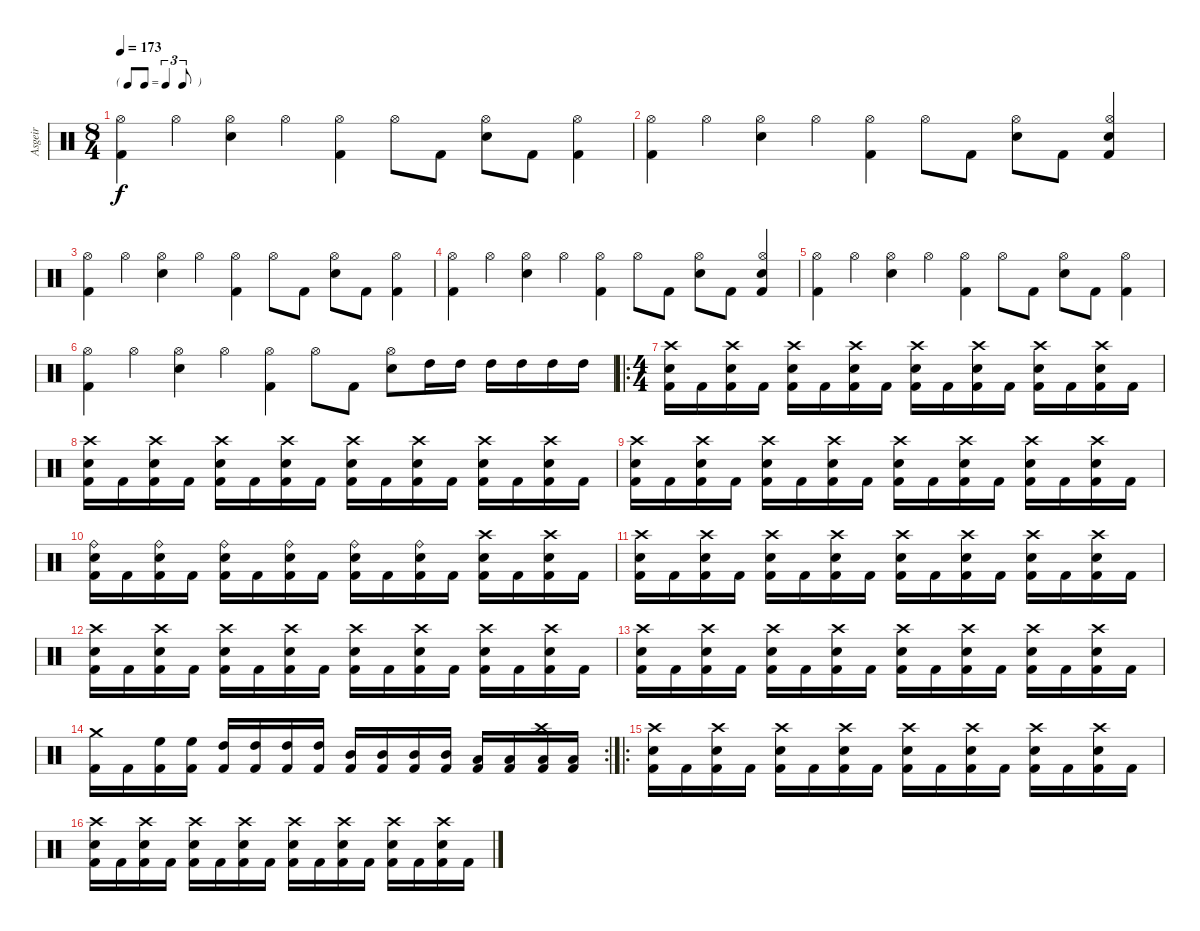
\track ("Asgeir" "Asgeir") {instrument percussion}
\staff {score}
\articulation defaults
\ts (8 4)
\tf triplet8th
\tempo 173
\clef neutral
\ks c
("Kick (hit) 2" "Hi-Hat (open)").4{dy f} "Hi-Hat (open)".4 ("Snare (hit) 2" "Hi-Hat (open)").4 "Hi-Hat (open)".4 ("Kick (hit) 2" "Hi-Hat (open)").4 "Hi-Hat (open)".8 "Kick (hit) 2".8 ("Snare (hit) 2" "Hi-Hat (open)").8 "Kick (hit) 2".8 ("Kick (hit) 2" "Hi-Hat (open)").4 |
("Kick (hit) 2" "Hi-Hat (open)").4 "Hi-Hat (open)".4 ("Snare (hit) 2" "Hi-Hat (open)").4 "Hi-Hat (open)".4 ("Kick (hit) 2" "Hi-Hat (open)").4 "Hi-Hat (open)".8 "Kick (hit) 2".8 ("Snare (hit) 2" "Hi-Hat (open)").8 "Kick (hit) 2".8 ("Kick (hit) 2" "Snare (hit) 2" "Hi-Hat (open)").4 |
("Kick (hit) 2" "Hi-Hat (open)").4 "Hi-Hat (open)".4 ("Snare (hit) 2" "Hi-Hat (open)").4 "Hi-Hat (open)".4 ("Kick (hit) 2" "Hi-Hat (open)").4 "Hi-Hat (open)".8 "Kick (hit) 2".8 ("Snare (hit) 2" "Hi-Hat (open)").8 "Kick (hit) 2".8 ("Kick (hit) 2" "Hi-Hat (open)").4 |
("Kick (hit) 2" "Hi-Hat (open)").4 "Hi-Hat (open)".4 ("Snare (hit) 2" "Hi-Hat (open)").4 "Hi-Hat (open)".4 ("Kick (hit) 2" "Hi-Hat (open)").4 "Hi-Hat (open)".8 "Kick (hit) 2".8 ("Snare (hit) 2" "Hi-Hat (open)").8 "Kick (hit) 2".8 ("Kick (hit) 2" "Snare (hit) 2" "Hi-Hat (open)").4 |
("Kick (hit) 2" "Hi-Hat (open)").4 "Hi-Hat (open)".4 ("Snare (hit) 2" "Hi-Hat (open)").4 "Hi-Hat (open)".4 ("Kick (hit) 2" "Hi-Hat (open)").4 "Hi-Hat (open)".8 "Kick (hit) 2".8 ("Snare (hit) 2" "Hi-Hat (open)").8 "Kick (hit) 2".8 ("Kick (hit) 2" "Hi-Hat (open)").4 |
("Kick (hit) 2" "Hi-Hat (open)").4 "Hi-Hat (open)".4 ("Snare (hit) 2" "Hi-Hat (open)").4 "Hi-Hat (open)".4 ("Kick (hit) 2" "Hi-Hat (open)").4 "Hi-Hat (open)".8 "Kick (hit) 2".8 ("Snare (hit) 2" "Hi-Hat (open)").8 "High Tom (hit)".16 "High Tom (hit)".16 "High Tom (hit)".16 "High Tom (hit)".16 "High Tom (hit)".16 "High Tom (hit)".16 |
\ro
\ts (4 4)
("Kick (hit) 2" "Snare (hit) 2" "Crash high (hit)").16 "Kick (hit) 2".16 ("Kick (hit) 2" "Snare (hit) 2" "Crash high (hit)").16 "Kick (hit) 2".16 ("Kick (hit) 2" "Snare (hit) 2" "Crash high (hit)").16 "Kick (hit) 2".16 ("Kick (hit) 2" "Snare (hit) 2" "Crash high (hit)").16 "Kick (hit) 2".16 ("Kick (hit) 2" "Snare (hit) 2" "Crash high (hit)").16 "Kick (hit) 2".16 ("Kick (hit) 2" "Snare (hit) 2" "Crash high (hit)").16 "Kick (hit) 2".16 ("Kick (hit) 2" "Snare (hit) 2" "Crash high (hit)").16 "Kick (hit) 2".16 ("Kick (hit) 2" "Snare (hit) 2" "Crash high (hit)").16 "Kick (hit) 2".16 |
("Kick (hit) 2" "Snare (hit) 2" "Crash high (hit)").16 "Kick (hit) 2".16 ("Kick (hit) 2" "Snare (hit) 2" "Crash high (hit)").16 "Kick (hit) 2".16 ("Kick (hit) 2" "Snare (hit) 2" "Crash high (hit)").16 "Kick (hit) 2".16 ("Kick (hit) 2" "Snare (hit) 2" "Crash high (hit)").16 "Kick (hit) 2".16 ("Kick (hit) 2" "Snare (hit) 2" "Crash high (hit)").16 "Kick (hit) 2".16 ("Kick (hit) 2" "Snare (hit) 2" "Crash high (hit)").16 "Kick (hit) 2".16 ("Kick (hit) 2" "Snare (hit) 2" "Crash high (hit)").16 "Kick (hit) 2".16 ("Kick (hit) 2" "Snare (hit) 2" "Crash high (hit)").16 "Kick (hit) 2".16 |
("Kick (hit) 2" "Snare (hit) 2" "Crash high (hit)").16 "Kick (hit) 2".16 ("Kick (hit) 2" "Snare (hit) 2" "Crash high (hit)").16 "Kick (hit) 2".16 ("Kick (hit) 2" "Snare (hit) 2" "Crash high (hit)").16 "Kick (hit) 2".16 ("Kick (hit) 2" "Snare (hit) 2" "Crash high (hit)").16 "Kick (hit) 2".16 ("Kick (hit) 2" "Snare (hit) 2" "Crash high (hit)").16 "Kick (hit) 2".16 ("Kick (hit) 2" "Snare (hit) 2" "Crash high (hit)").16 "Kick (hit) 2".16 ("Kick (hit) 2" "Snare (hit) 2" "Crash high (hit)").16 "Kick (hit) 2".16 ("Kick (hit) 2" "Snare (hit) 2" "Crash high (hit)").16 "Kick (hit) 2".16 |
("Kick (hit) 2" "Snare (hit) 2" "Ride (bell)").16 "Kick (hit) 2".16 ("Kick (hit) 2" "Snare (hit) 2" "Ride (bell)").16 "Kick (hit) 2".16 ("Kick (hit) 2" "Snare (hit) 2" "Ride (bell)").16 "Kick (hit) 2".16 ("Kick (hit) 2" "Snare (hit) 2" "Ride (bell)").16 "Kick (hit) 2".16 ("Kick (hit) 2" "Snare (hit) 2" "Ride (bell)").16 "Kick (hit) 2".16 ("Kick (hit) 2" "Snare (hit) 2" "Ride (bell)").16 "Kick (hit) 2".16 ("Kick (hit) 2" "Snare (hit) 2" "Crash high (hit)").16 "Kick (hit) 2".16 ("Kick (hit) 2" "Snare (hit) 2" "Crash high (hit)").16 "Kick (hit) 2".16 |
("Kick (hit) 2" "Snare (hit) 2" "Crash high (hit)").16 "Kick (hit) 2".16 ("Kick (hit) 2" "Snare (hit) 2" "Crash high (hit)").16 "Kick (hit) 2".16 ("Kick (hit) 2" "Snare (hit) 2" "Crash high (hit)").16 "Kick (hit) 2".16 ("Kick (hit) 2" "Snare (hit) 2" "Crash high (hit)").16 "Kick (hit) 2".16 ("Kick (hit) 2" "Snare (hit) 2" "Crash high (hit)").16 "Kick (hit) 2".16 ("Kick (hit) 2" "Snare (hit) 2" "Crash high (hit)").16 "Kick (hit) 2".16 ("Kick (hit) 2" "Snare (hit) 2" "Crash high (hit)").16 "Kick (hit) 2".16 ("Kick (hit) 2" "Snare (hit) 2" "Crash high (hit)").16 "Kick (hit) 2".16 |
("Kick (hit) 2" "Snare (hit) 2" "Crash high (hit)").16 "Kick (hit) 2".16 ("Kick (hit) 2" "Snare (hit) 2" "Crash high (hit)").16 "Kick (hit) 2".16 ("Kick (hit) 2" "Snare (hit) 2" "Crash high (hit)").16 "Kick (hit) 2".16 ("Kick (hit) 2" "Snare (hit) 2" "Crash high (hit)").16 "Kick (hit) 2".16 ("Kick (hit) 2" "Snare (hit) 2" "Crash high (hit)").16 "Kick (hit) 2".16 ("Kick (hit) 2" "Snare (hit) 2" "Crash high (hit)").16 "Kick (hit) 2".16 ("Kick (hit) 2" "Snare (hit) 2" "Crash high (hit)").16 "Kick (hit) 2".16 ("Kick (hit) 2" "Snare (hit) 2" "Crash high (hit)").16 "Kick (hit) 2".16 |
("Kick (hit) 2" "Snare (hit) 2" "Crash high (hit)").16 "Kick (hit) 2".16 ("Kick (hit) 2" "Snare (hit) 2" "Crash high (hit)").16 "Kick (hit) 2".16 ("Kick (hit) 2" "Snare (hit) 2" "Crash high (hit)").16 "Kick (hit) 2".16 ("Kick (hit) 2" "Snare (hit) 2" "Crash high (hit)").16 "Kick (hit) 2".16 ("Kick (hit) 2" "Snare (hit) 2" "Crash high (hit)").16 "Kick (hit) 2".16 ("Kick (hit) 2" "Snare (hit) 2" "Crash high (hit)").16 "Kick (hit) 2".16 ("Kick (hit) 2" "Snare (hit) 2" "Crash high (hit)").16 "Kick (hit) 2".16 ("Kick (hit) 2" "Snare (hit) 2" "Crash high (hit)").16 "Kick (hit) 2".16 |
\rc 2
("Kick (hit) 2" "Crash medium (hit)").16 "Kick (hit) 2".16 ("Kick (hit) 2" "High Floor Tom (hit)").16 ("Kick (hit) 2" "High Floor Tom (hit)").16 ("Kick (hit) 2" "High Tom (hit)").16 ("Kick (hit) 2" "High Tom (hit)").16 ("Kick (hit) 2" "High Tom (hit)").16 ("Kick (hit) 2" "High Tom (hit)").16 ("Kick (hit) 2" "Mid Tom (hit)").16 ("Kick (hit) 2" "Mid Tom (hit)").16 ("Kick (hit) 2" "Mid Tom (hit)").16 ("Kick (hit) 2" "Mid Tom (hit)").16 ("Kick (hit) 2" "Low Tom (hit)").16 ("Kick (hit) 2" "Low Tom (hit)").16 ("Kick (hit) 2" "Low Tom (hit)" "Crash high (hit)").16 ("Kick (hit) 2" "Low Tom (hit)").16 |
\ro
("Kick (hit) 2" "Snare (hit) 2" "Crash high (hit)").16 "Kick (hit) 2".16 ("Kick (hit) 2" "Snare (hit) 2" "Crash high (hit)").16 "Kick (hit) 2".16 ("Kick (hit) 2" "Snare (hit) 2" "Crash high (hit)").16 "Kick (hit) 2".16 ("Kick (hit) 2" "Snare (hit) 2" "Crash high (hit)").16 "Kick (hit) 2".16 ("Kick (hit) 2" "Snare (hit) 2" "Crash high (hit)").16 "Kick (hit) 2".16 ("Kick (hit) 2" "Snare (hit) 2" "Crash high (hit)").16 "Kick (hit) 2".16 ("Kick (hit) 2" "Snare (hit) 2" "Crash high (hit)").16 "Kick (hit) 2".16 ("Kick (hit) 2" "Snare (hit) 2" "Crash high (hit)").16 "Kick (hit) 2".16 |
("Kick (hit) 2" "Snare (hit) 2" "Crash high (hit)").16 "Kick (hit) 2".16 ("Kick (hit) 2" "Snare (hit) 2" "Crash high (hit)").16 "Kick (hit) 2".16 ("Kick (hit) 2" "Snare (hit) 2" "Crash high (hit)").16 "Kick (hit) 2".16 ("Kick (hit) 2" "Snare (hit) 2" "Crash high (hit)").16 "Kick (hit) 2".16 ("Kick (hit) 2" "Snare (hit) 2" "Crash high (hit)").16 "Kick (hit) 2".16 ("Kick (hit) 2" "Snare (hit) 2" "Crash high (hit)").16 "Kick (hit) 2".16 ("Kick (hit) 2" "Snare (hit) 2" "Crash high (hit)").16 "Kick (hit) 2".16 ("Kick (hit) 2" "Snare (hit) 2" "Crash high (hit)").16 "Kick (hit) 2".16
